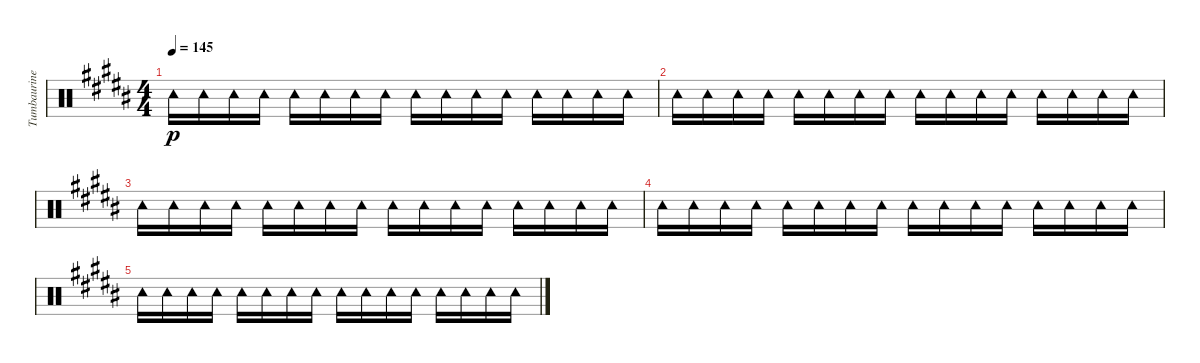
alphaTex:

\track ("Tumbaurine" "Tumbaurine") {instrument percussion}
\staff {score}
\articulation defaults
\ts (4 4)
\tempo 145
\clef neutral
\ks b "Tambourine (hit)".16{dy p} "Tambourine (hit)".16 "Tambourine (hit)".16 "Tambourine (hit)".16 "Tambourine (hit)".16 "Tambourine (hit)".16 "Tambourine (hit)".16 "Tambourine (hit)".16 "Tambourine (hit)".16 "Tambourine (hit)".16 "Tambourine (hit)".16 "Tambourine (hit)".16 "Tambourine (hit)".16 "Tambourine (hit)".16 "Tambourine (hit)".16 "Tambourine (hit)".16
|
"Tambourine (hit)".16 "Tambourine (hit)".16 "Tambourine (hit)".16 "Tambourine (hit)".16 "Tambourine (hit)".16 "Tambourine (hit)".16 "Tambourine (hit)".16 "Tambourine (hit)".16 "Tambourine (hit)".16 "Tambourine (hit)".16 "Tambourine (hit)".16 "Tambourine (hit)".16 "Tambourine (hit)".16 "Tambourine (hit)".16 "Tambourine (hit)".16 "Tambourine (hit)".16 |
"Tambourine (hit)".16 "Tambourine (hit)".16 "Tambourine (hit)".16 "Tambourine (hit)".16 "Tambourine (hit)".16 "Tambourine (hit)".16 "Tambourine (hit)".16 "Tambourine (hit)".16 "Tambourine (hit)".16 "Tambourine (hit)".16 "Tambourine (hit)".16 "Tambourine (hit)".16 "Tambourine (hit)".16 "Tambourine (hit)".16 "Tambourine (hit)".16 "Tambourine (hit)".16 |
"Tambourine (hit)".16 "Tambourine (hit)".16 "Tambourine (hit)".16 "Tambourine (hit)".16 "Tambourine (hit)".16 "Tambourine (hit)".16 "Tambourine (hit)".16 "Tambourine (hit)".16 "Tambourine (hit)".16 "Tambourine (hit)".16 "Tambourine (hit)".16 "Tambourine (hit)".16 "Tambourine (hit)".16 "Tambourine (hit)".16 "Tambourine (hit)".16 "Tambourine (hit)".16 |
"Tambourine (hit)".16 "Tambourine (hit)".16 "Tambourine (hit)".16 "Tambourine (hit)".16 "Tambourine (hit)".16 "Tambourine (hit)".16 "Tambourine (hit)".16 "Tambourine (hit)".16 "Tambourine (hit)".16 "Tambourine (hit)".16 "Tambourine (hit)".16 "Tambourine (hit)".16 "Tambourine (hit)".16 "Tambourine (hit)".16 "Tambourine (hit)".16 "Tambourine (hit)".16
